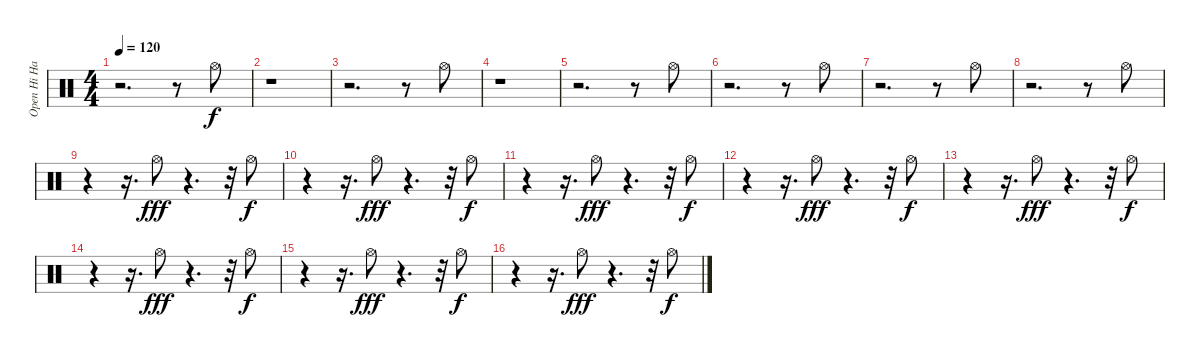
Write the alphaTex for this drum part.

\track ("Open Hi Hat         " "Open Hi Ha") {instrument percussion}
\staff {score}
\articulation defaults
\ts (4 4)
\tempo 120
\clef neutral
\ks c
r.2{d dy f} r.8 "Hi-Hat (open)".8 |
r.1 |
r.2{d} r.8 "Hi-Hat (open)".8 |
r.1 |
r.2{d} r.8 "Hi-Hat (open)".8 |
r.2{d} r.8 "Hi-Hat (open)".8 |
r.2{d} r.8 "Hi-Hat (open)".8 |
r.2{d} r.8 "Hi-Hat (open)".8 |
r.4 r.16{d} "Hi-Hat (open)".8{dy fff} r.4{d} r.32 "Hi-Hat (open)".8{dy f} |
r.4 r.16{d} "Hi-Hat (open)".8{dy fff} r.4{d} r.32 "Hi-Hat (open)".8{dy f} |
r.4 r.16{d} "Hi-Hat (open)".8{dy fff} r.4{d} r.32 "Hi-Hat (open)".8{dy f} |
r.4 r.16{d} "Hi-Hat (open)".8{dy fff} r.4{d} r.32 "Hi-Hat (open)".8{dy f} |
r.4 r.16{d} "Hi-Hat (open)".8{dy fff} r.4{d} r.32 "Hi-Hat (open)".8{dy f} |
r.4 r.16{d} "Hi-Hat (open)".8{dy fff} r.4{d} r.32 "Hi-Hat (open)".8{dy f} |
r.4 r.16{d} "Hi-Hat (open)".8{dy fff} r.4{d} r.32 "Hi-Hat (open)".8{dy f} |
r.4 r.16{d} "Hi-Hat (open)".8{dy fff} r.4{d} r.32 "Hi-Hat (open)".8{dy f}
